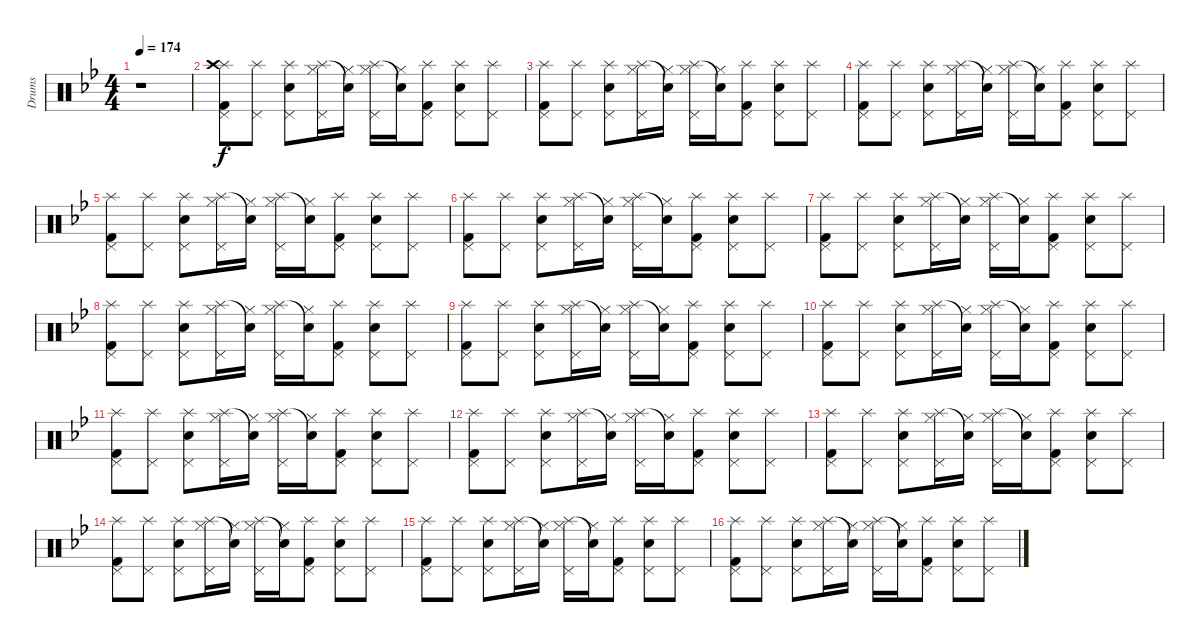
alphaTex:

\track ("Drums" "Drums") {instrument percussion}
\staff {score}
\articulation defaults
\ts (4 4)
\tempo 174
\clef neutral
\ks gminor
r.1{dy fff} |
("Splash (hit)" "Pedal Hi-Hat (hit)" "Crash high (hit)" "Kick (hit) 2").8{dy f} ("Splash (hit)" "Pedal Hi-Hat (hit)").8 ("Splash (hit)" "Pedal Hi-Hat (hit)" "Snare (hit) 2").8 ("Splash (hit)" "Pedal Hi-Hat (hit)" "Hi-Hat (closed)").16 ("Snare (hit)"{t} "Hi-Hat (closed)").16 ("Splash (hit)" "Pedal Hi-Hat (hit)" "Hi-Hat (closed)").16 ("Snare (hit)"{t} "Hi-Hat (closed)").16 ("Splash (hit)" "Pedal Hi-Hat (hit)" "Kick (hit) 2").8 ("Splash (hit)" "Pedal Hi-Hat (hit)" "Snare (hit) 2").8 ("Splash (hit)" "Pedal Hi-Hat (hit)").8 |
("Splash (hit)" "Pedal Hi-Hat (hit)" "Kick (hit) 2").8 ("Splash (hit)" "Pedal Hi-Hat (hit)").8 ("Splash (hit)" "Pedal Hi-Hat (hit)" "Snare (hit) 2").8 ("Splash (hit)" "Pedal Hi-Hat (hit)" "Hi-Hat (closed)").16 ("Snare (hit)"{t} "Hi-Hat (closed)").16 ("Splash (hit)" "Pedal Hi-Hat (hit)" "Hi-Hat (closed)").16 ("Snare (hit)"{t} "Hi-Hat (closed)").16 ("Splash (hit)" "Pedal Hi-Hat (hit)" "Kick (hit) 2").8 ("Splash (hit)" "Pedal Hi-Hat (hit)" "Snare (hit) 2").8 ("Splash (hit)" "Pedal Hi-Hat (hit)").8 |
("Splash (hit)" "Pedal Hi-Hat (hit)" "Kick (hit) 2").8 ("Splash (hit)" "Pedal Hi-Hat (hit)").8 ("Splash (hit)" "Pedal Hi-Hat (hit)" "Snare (hit) 2").8 ("Splash (hit)" "Pedal Hi-Hat (hit)" "Hi-Hat (closed)").16 ("Snare (hit)"{t} "Hi-Hat (closed)").16 ("Splash (hit)" "Pedal Hi-Hat (hit)" "Hi-Hat (closed)").16 ("Snare (hit)"{t} "Hi-Hat (closed)").16 ("Splash (hit)" "Pedal Hi-Hat (hit)" "Kick (hit) 2").8 ("Splash (hit)" "Pedal Hi-Hat (hit)" "Snare (hit) 2").8 ("Splash (hit)" "Pedal Hi-Hat (hit)").8 |
("Splash (hit)" "Pedal Hi-Hat (hit)" "Kick (hit) 2").8 ("Splash (hit)" "Pedal Hi-Hat (hit)").8 ("Splash (hit)" "Pedal Hi-Hat (hit)" "Snare (hit) 2").8 ("Splash (hit)" "Pedal Hi-Hat (hit)" "Hi-Hat (closed)").16 ("Snare (hit)"{t} "Hi-Hat (closed)").16 ("Splash (hit)" "Pedal Hi-Hat (hit)" "Hi-Hat (closed)").16 ("Snare (hit)"{t} "Hi-Hat (closed)").16 ("Splash (hit)" "Pedal Hi-Hat (hit)" "Kick (hit) 2").8 ("Splash (hit)" "Pedal Hi-Hat (hit)" "Snare (hit) 2").8 ("Splash (hit)" "Pedal Hi-Hat (hit)").8 |
("Splash (hit)" "Pedal Hi-Hat (hit)" "Kick (hit) 2").8 ("Splash (hit)" "Pedal Hi-Hat (hit)").8 ("Splash (hit)" "Pedal Hi-Hat (hit)" "Snare (hit) 2").8 ("Splash (hit)" "Pedal Hi-Hat (hit)" "Hi-Hat (closed)").16 ("Snare (hit)"{t} "Hi-Hat (closed)").16 ("Splash (hit)" "Pedal Hi-Hat (hit)" "Hi-Hat (closed)").16 ("Snare (hit)"{t} "Hi-Hat (closed)").16 ("Splash (hit)" "Pedal Hi-Hat (hit)" "Kick (hit) 2").8 ("Splash (hit)" "Pedal Hi-Hat (hit)" "Snare (hit) 2").8 ("Splash (hit)" "Pedal Hi-Hat (hit)").8 |
("Splash (hit)" "Pedal Hi-Hat (hit)" "Kick (hit) 2").8 ("Splash (hit)" "Pedal Hi-Hat (hit)").8 ("Splash (hit)" "Pedal Hi-Hat (hit)" "Snare (hit) 2").8 ("Splash (hit)" "Pedal Hi-Hat (hit)" "Hi-Hat (closed)").16 ("Snare (hit)"{t} "Hi-Hat (closed)").16 ("Splash (hit)" "Pedal Hi-Hat (hit)" "Hi-Hat (closed)").16 ("Snare (hit)"{t} "Hi-Hat (closed)").16 ("Splash (hit)" "Pedal Hi-Hat (hit)" "Kick (hit) 2").8 ("Splash (hit)" "Pedal Hi-Hat (hit)" "Snare (hit) 2").8 ("Splash (hit)" "Pedal Hi-Hat (hit)").8 |
("Splash (hit)" "Pedal Hi-Hat (hit)" "Kick (hit) 2").8 ("Splash (hit)" "Pedal Hi-Hat (hit)").8 ("Splash (hit)" "Pedal Hi-Hat (hit)" "Snare (hit) 2").8 ("Splash (hit)" "Pedal Hi-Hat (hit)" "Hi-Hat (closed)").16 ("Snare (hit)"{t} "Hi-Hat (closed)").16 ("Splash (hit)" "Pedal Hi-Hat (hit)" "Hi-Hat (closed)").16 ("Snare (hit)"{t} "Hi-Hat (closed)").16 ("Splash (hit)" "Pedal Hi-Hat (hit)" "Kick (hit) 2").8 ("Splash (hit)" "Pedal Hi-Hat (hit)" "Snare (hit) 2").8 ("Splash (hit)" "Pedal Hi-Hat (hit)").8 |
("Splash (hit)" "Pedal Hi-Hat (hit)" "Kick (hit) 2").8 ("Splash (hit)" "Pedal Hi-Hat (hit)").8 ("Splash (hit)" "Pedal Hi-Hat (hit)" "Snare (hit) 2").8 ("Splash (hit)" "Pedal Hi-Hat (hit)" "Hi-Hat (closed)").16 ("Snare (hit)"{t} "Hi-Hat (closed)").16 ("Splash (hit)" "Pedal Hi-Hat (hit)" "Hi-Hat (closed)").16 ("Snare (hit)"{t} "Hi-Hat (closed)").16 ("Splash (hit)" "Pedal Hi-Hat (hit)" "Kick (hit) 2").8 ("Splash (hit)" "Pedal Hi-Hat (hit)" "Snare (hit) 2").8 ("Splash (hit)" "Pedal Hi-Hat (hit)").8 |
("Splash (hit)" "Pedal Hi-Hat (hit)" "Kick (hit) 2").8 ("Splash (hit)" "Pedal Hi-Hat (hit)").8 ("Splash (hit)" "Pedal Hi-Hat (hit)" "Snare (hit) 2").8 ("Splash (hit)" "Pedal Hi-Hat (hit)" "Hi-Hat (closed)").16 ("Snare (hit)"{t} "Hi-Hat (closed)").16 ("Splash (hit)" "Pedal Hi-Hat (hit)" "Hi-Hat (closed)").16 ("Snare (hit)"{t} "Hi-Hat (closed)").16 ("Splash (hit)" "Pedal Hi-Hat (hit)" "Kick (hit) 2").8 ("Splash (hit)" "Pedal Hi-Hat (hit)" "Snare (hit) 2").8 ("Splash (hit)" "Pedal Hi-Hat (hit)").8 |
("Splash (hit)" "Pedal Hi-Hat (hit)" "Kick (hit) 2").8 ("Splash (hit)" "Pedal Hi-Hat (hit)").8 ("Splash (hit)" "Pedal Hi-Hat (hit)" "Snare (hit) 2").8 ("Splash (hit)" "Pedal Hi-Hat (hit)" "Hi-Hat (closed)").16 ("Snare (hit)"{t} "Hi-Hat (closed)").16 ("Splash (hit)" "Pedal Hi-Hat (hit)" "Hi-Hat (closed)").16 ("Snare (hit)"{t} "Hi-Hat (closed)").16 ("Splash (hit)" "Pedal Hi-Hat (hit)" "Kick (hit) 2").8 ("Splash (hit)" "Pedal Hi-Hat (hit)" "Snare (hit) 2").8 ("Splash (hit)" "Pedal Hi-Hat (hit)").8 |
("Splash (hit)" "Pedal Hi-Hat (hit)" "Kick (hit) 2").8 ("Splash (hit)" "Pedal Hi-Hat (hit)").8 ("Splash (hit)" "Pedal Hi-Hat (hit)" "Snare (hit) 2").8 ("Splash (hit)" "Pedal Hi-Hat (hit)" "Hi-Hat (closed)").16 ("Snare (hit)"{t} "Hi-Hat (closed)").16 ("Splash (hit)" "Pedal Hi-Hat (hit)" "Hi-Hat (closed)").16 ("Snare (hit)"{t} "Hi-Hat (closed)").16 ("Splash (hit)" "Pedal Hi-Hat (hit)" "Kick (hit) 2").8 ("Splash (hit)" "Pedal Hi-Hat (hit)" "Snare (hit) 2").8 ("Splash (hit)" "Pedal Hi-Hat (hit)").8 |
("Splash (hit)" "Pedal Hi-Hat (hit)" "Kick (hit) 2").8 ("Splash (hit)" "Pedal Hi-Hat (hit)").8 ("Splash (hit)" "Pedal Hi-Hat (hit)" "Snare (hit) 2").8 ("Splash (hit)" "Pedal Hi-Hat (hit)" "Hi-Hat (closed)").16 ("Snare (hit)"{t} "Hi-Hat (closed)").16 ("Splash (hit)" "Pedal Hi-Hat (hit)" "Hi-Hat (closed)").16 ("Snare (hit)"{t} "Hi-Hat (closed)").16 ("Splash (hit)" "Pedal Hi-Hat (hit)" "Kick (hit) 2").8 ("Splash (hit)" "Pedal Hi-Hat (hit)" "Snare (hit) 2").8 ("Splash (hit)" "Pedal Hi-Hat (hit)").8 |
("Splash (hit)" "Pedal Hi-Hat (hit)" "Kick (hit) 2").8 ("Splash (hit)" "Pedal Hi-Hat (hit)").8 ("Splash (hit)" "Pedal Hi-Hat (hit)" "Snare (hit) 2").8 ("Splash (hit)" "Pedal Hi-Hat (hit)" "Hi-Hat (closed)").16 ("Snare (hit)"{t} "Hi-Hat (closed)").16 ("Splash (hit)" "Pedal Hi-Hat (hit)" "Hi-Hat (closed)").16 ("Snare (hit)"{t} "Hi-Hat (closed)").16 ("Splash (hit)" "Pedal Hi-Hat (hit)" "Kick (hit) 2").8 ("Splash (hit)" "Pedal Hi-Hat (hit)" "Snare (hit) 2").8 ("Splash (hit)" "Pedal Hi-Hat (hit)").8 |
("Splash (hit)" "Pedal Hi-Hat (hit)" "Kick (hit) 2").8 ("Splash (hit)" "Pedal Hi-Hat (hit)").8 ("Splash (hit)" "Pedal Hi-Hat (hit)" "Snare (hit) 2").8 ("Splash (hit)" "Pedal Hi-Hat (hit)" "Hi-Hat (closed)").16 ("Snare (hit)"{t} "Hi-Hat (closed)").16 ("Splash (hit)" "Pedal Hi-Hat (hit)" "Hi-Hat (closed)").16 ("Snare (hit)"{t} "Hi-Hat (closed)").16 ("Splash (hit)" "Pedal Hi-Hat (hit)" "Kick (hit) 2").8 ("Splash (hit)" "Pedal Hi-Hat (hit)" "Snare (hit) 2").8 ("Splash (hit)" "Pedal Hi-Hat (hit)").8 |
("Splash (hit)" "Pedal Hi-Hat (hit)" "Kick (hit) 2").8 ("Splash (hit)" "Pedal Hi-Hat (hit)").8 ("Splash (hit)" "Pedal Hi-Hat (hit)" "Snare (hit) 2").8 ("Splash (hit)" "Pedal Hi-Hat (hit)" "Hi-Hat (closed)").16 ("Snare (hit)"{t} "Hi-Hat (closed)").16 ("Splash (hit)" "Pedal Hi-Hat (hit)" "Hi-Hat (closed)").16 ("Snare (hit)"{t} "Hi-Hat (closed)").16 ("Splash (hit)" "Pedal Hi-Hat (hit)" "Kick (hit) 2").8 ("Splash (hit)" "Pedal Hi-Hat (hit)" "Snare (hit) 2").8 ("Splash (hit)" "Pedal Hi-Hat (hit)").8
